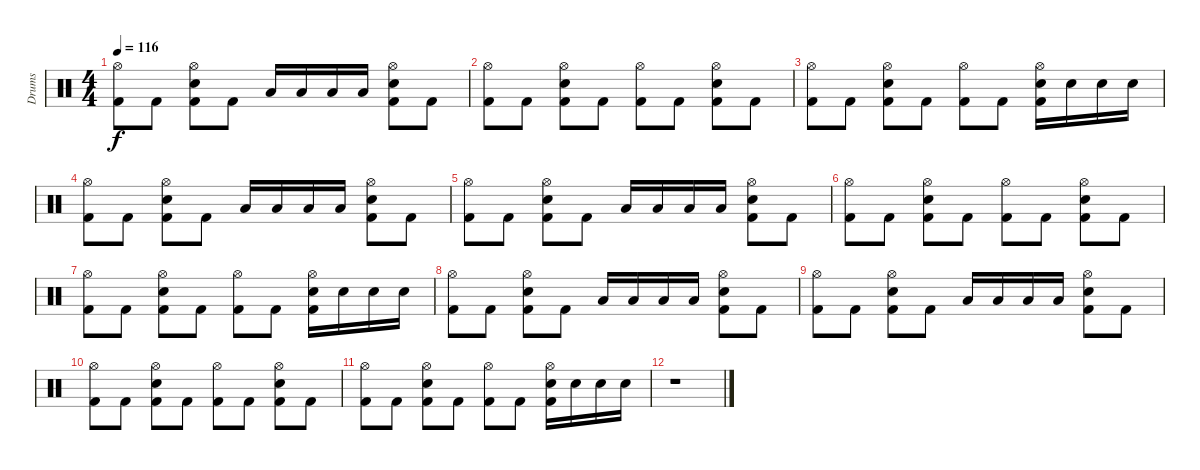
\track ("Drums" "Drums") {instrument percussion}
\staff {score}
\articulation defaults
\ts (4 4)
\tempo 116
\clef neutral
\ks c
("Hi-Hat (open)" "Kick (hit) 2").8{dy f} "Kick (hit) 2".8 ("Hi-Hat (open)" "Electric Snare (hit)" "Kick (hit) 2").8 "Kick (hit) 2".8 "Low Floor Tom (hit)".16 "Low Floor Tom (hit)".16 "Low Floor Tom (hit)".16 "Low Floor Tom (hit)".16 ("Hi-Hat (open)" "Electric Snare (hit)" "Kick (hit) 2").8 "Kick (hit) 2".8 |
("Hi-Hat (open)" "Kick (hit) 2").8 "Kick (hit) 2".8 ("Hi-Hat (open)" "Electric Snare (hit)" "Kick (hit) 2").8 "Kick (hit) 2".8 ("Hi-Hat (open)" "Kick (hit) 2").8 "Kick (hit) 2".8 ("Hi-Hat (open)" "Electric Snare (hit)" "Kick (hit) 2").8 "Kick (hit) 2".8 |
("Hi-Hat (open)" "Kick (hit) 2").8 "Kick (hit) 2".8 ("Hi-Hat (open)" "Electric Snare (hit)" "Kick (hit) 2").8 "Kick (hit) 2".8 ("Hi-Hat (open)" "Kick (hit) 2").8 "Kick (hit) 2".8 ("Hi-Hat (open)" "Electric Snare (hit)" "Kick (hit) 2").16 "Electric Snare (hit)".16 "Electric Snare (hit)".16 "Electric Snare (hit)".16 |
("Hi-Hat (open)" "Kick (hit) 2").8 "Kick (hit) 2".8 ("Hi-Hat (open)" "Electric Snare (hit)" "Kick (hit) 2").8 "Kick (hit) 2".8 "Low Floor Tom (hit)".16 "Low Floor Tom (hit)".16 "Low Floor Tom (hit)".16 "Low Floor Tom (hit)".16 ("Hi-Hat (open)" "Electric Snare (hit)" "Kick (hit) 2").8 "Kick (hit) 2".8 |
("Hi-Hat (open)" "Kick (hit) 2").8 "Kick (hit) 2".8 ("Hi-Hat (open)" "Electric Snare (hit)" "Kick (hit) 2").8 "Kick (hit) 2".8 "Low Floor Tom (hit)".16 "Low Floor Tom (hit)".16 "Low Floor Tom (hit)".16 "Low Floor Tom (hit)".16 ("Hi-Hat (open)" "Electric Snare (hit)" "Kick (hit) 2").8 "Kick (hit) 2".8 |
("Hi-Hat (open)" "Kick (hit) 2").8 "Kick (hit) 2".8 ("Hi-Hat (open)" "Electric Snare (hit)" "Kick (hit) 2").8 "Kick (hit) 2".8 ("Hi-Hat (open)" "Kick (hit) 2").8 "Kick (hit) 2".8 ("Hi-Hat (open)" "Electric Snare (hit)" "Kick (hit) 2").8 "Kick (hit) 2".8 |
("Hi-Hat (open)" "Kick (hit) 2").8 "Kick (hit) 2".8 ("Hi-Hat (open)" "Electric Snare (hit)" "Kick (hit) 2").8 "Kick (hit) 2".8 ("Hi-Hat (open)" "Kick (hit) 2").8 "Kick (hit) 2".8 ("Hi-Hat (open)" "Electric Snare (hit)" "Kick (hit) 2").16 "Electric Snare (hit)".16 "Electric Snare (hit)".16 "Electric Snare (hit)".16 |
("Hi-Hat (open)" "Kick (hit) 2").8 "Kick (hit) 2".8 ("Hi-Hat (open)" "Electric Snare (hit)" "Kick (hit) 2").8 "Kick (hit) 2".8 "Low Floor Tom (hit)".16 "Low Floor Tom (hit)".16 "Low Floor Tom (hit)".16 "Low Floor Tom (hit)".16 ("Hi-Hat (open)" "Electric Snare (hit)" "Kick (hit) 2").8 "Kick (hit) 2".8 |
("Hi-Hat (open)" "Kick (hit) 2").8 "Kick (hit) 2".8 ("Hi-Hat (open)" "Electric Snare (hit)" "Kick (hit) 2").8 "Kick (hit) 2".8 "Low Floor Tom (hit)".16 "Low Floor Tom (hit)".16 "Low Floor Tom (hit)".16 "Low Floor Tom (hit)".16 ("Hi-Hat (open)" "Electric Snare (hit)" "Kick (hit) 2").8 "Kick (hit) 2".8 |
("Hi-Hat (open)" "Kick (hit) 2").8 "Kick (hit) 2".8 ("Hi-Hat (open)" "Electric Snare (hit)" "Kick (hit) 2").8 "Kick (hit) 2".8 ("Hi-Hat (open)" "Kick (hit) 2").8 "Kick (hit) 2".8 ("Hi-Hat (open)" "Electric Snare (hit)" "Kick (hit) 2").8 "Kick (hit) 2".8 |
("Hi-Hat (open)" "Kick (hit) 2").8 "Kick (hit) 2".8 ("Hi-Hat (open)" "Electric Snare (hit)" "Kick (hit) 2").8 "Kick (hit) 2".8 ("Hi-Hat (open)" "Kick (hit) 2").8 "Kick (hit) 2".8 ("Hi-Hat (open)" "Electric Snare (hit)" "Kick (hit) 2").16 "Electric Snare (hit)".16 "Electric Snare (hit)".16 "Electric Snare (hit)".16 |
r.1
